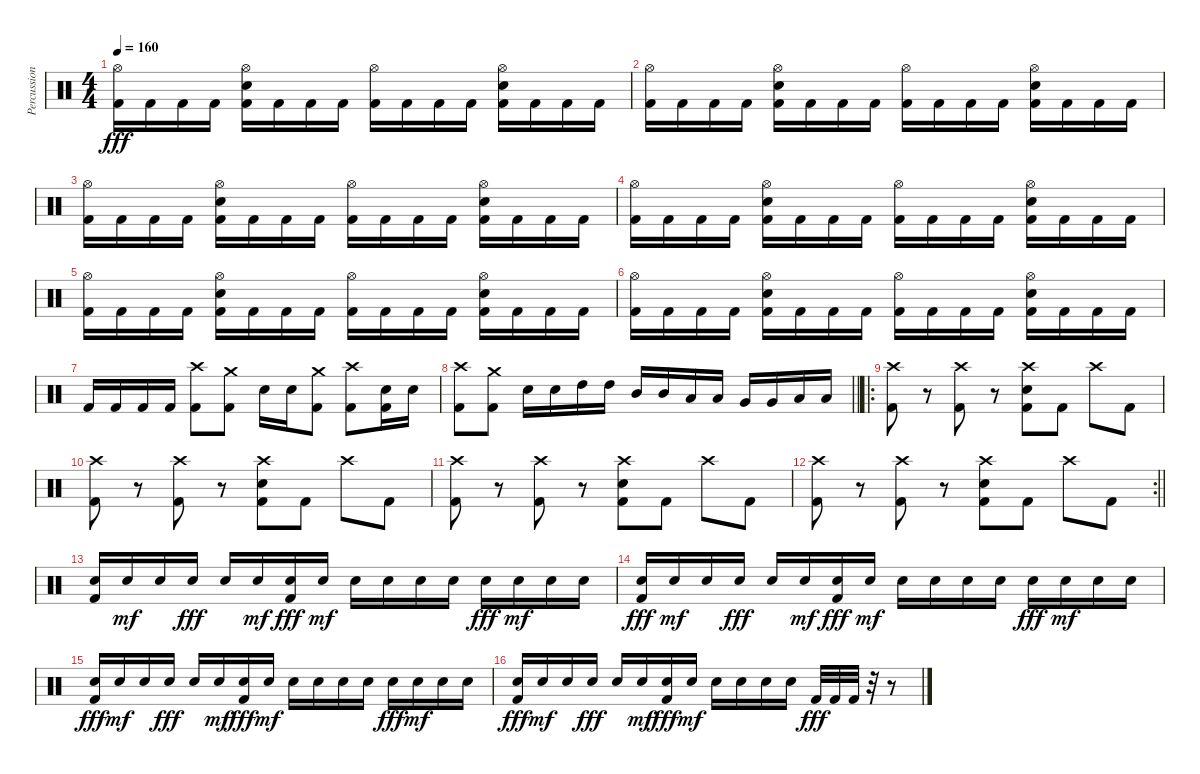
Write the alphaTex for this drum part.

\track ("Percussion" "Percussion") {instrument percussion}
\staff {score}
\articulation defaults
\ts (4 4)
\section ("" "")
\tempo 160
\clef neutral
\ks c
("Hi-Hat (open)" "Kick (hit) 2").16{dy fff} "Kick (hit) 2".16 "Kick (hit) 2".16 "Kick (hit) 2".16 ("Hi-Hat (open)" "Snare (hit) 2" "Kick (hit) 2").16 "Kick (hit) 2".16 "Kick (hit) 2".16 "Kick (hit) 2".16 ("Hi-Hat (open)" "Kick (hit) 2").16 "Kick (hit) 2".16 "Kick (hit) 2".16 "Kick (hit) 2".16 ("Hi-Hat (open)" "Snare (hit) 2" "Kick (hit) 2").16 "Kick (hit) 2".16 "Kick (hit) 2".16 "Kick (hit) 2".16 |
("Hi-Hat (open)" "Kick (hit) 2").16 "Kick (hit) 2".16 "Kick (hit) 2".16 "Kick (hit) 2".16 ("Hi-Hat (open)" "Snare (hit) 2" "Kick (hit) 2").16 "Kick (hit) 2".16 "Kick (hit) 2".16 "Kick (hit) 2".16 ("Hi-Hat (open)" "Kick (hit) 2").16 "Kick (hit) 2".16 "Kick (hit) 2".16 "Kick (hit) 2".16 ("Hi-Hat (open)" "Snare (hit) 2" "Kick (hit) 2").16 "Kick (hit) 2".16 "Kick (hit) 2".16 "Kick (hit) 2".16 |
("Hi-Hat (open)" "Kick (hit) 2").16 "Kick (hit) 2".16 "Kick (hit) 2".16 "Kick (hit) 2".16 ("Hi-Hat (open)" "Snare (hit) 2" "Kick (hit) 2").16 "Kick (hit) 2".16 "Kick (hit) 2".16 "Kick (hit) 2".16 ("Hi-Hat (open)" "Kick (hit) 2").16 "Kick (hit) 2".16 "Kick (hit) 2".16 "Kick (hit) 2".16 ("Hi-Hat (open)" "Snare (hit) 2" "Kick (hit) 2").16 "Kick (hit) 2".16 "Kick (hit) 2".16 "Kick (hit) 2".16 |
("Hi-Hat (open)" "Kick (hit) 2").16 "Kick (hit) 2".16 "Kick (hit) 2".16 "Kick (hit) 2".16 ("Hi-Hat (open)" "Snare (hit) 2" "Kick (hit) 2").16 "Kick (hit) 2".16 "Kick (hit) 2".16 "Kick (hit) 2".16 ("Hi-Hat (open)" "Kick (hit) 2").16 "Kick (hit) 2".16 "Kick (hit) 2".16 "Kick (hit) 2".16 ("Hi-Hat (open)" "Snare (hit) 2" "Kick (hit) 2").16 "Kick (hit) 2".16 "Kick (hit) 2".16 "Kick (hit) 2".16 |
("Hi-Hat (open)" "Kick (hit) 2").16 "Kick (hit) 2".16 "Kick (hit) 2".16 "Kick (hit) 2".16 ("Hi-Hat (open)" "Snare (hit) 2" "Kick (hit) 2").16 "Kick (hit) 2".16 "Kick (hit) 2".16 "Kick (hit) 2".16 ("Hi-Hat (open)" "Kick (hit) 2").16 "Kick (hit) 2".16 "Kick (hit) 2".16 "Kick (hit) 2".16 ("Hi-Hat (open)" "Snare (hit) 2" "Kick (hit) 2").16 "Kick (hit) 2".16 "Kick (hit) 2".16 "Kick (hit) 2".16 |
("Hi-Hat (open)" "Kick (hit) 2").16 "Kick (hit) 2".16 "Kick (hit) 2".16 "Kick (hit) 2".16 ("Hi-Hat (open)" "Snare (hit) 2" "Kick (hit) 2").16 "Kick (hit) 2".16 "Kick (hit) 2".16 "Kick (hit) 2".16 ("Hi-Hat (open)" "Kick (hit) 2").16 "Kick (hit) 2".16 "Kick (hit) 2".16 "Kick (hit) 2".16 ("Hi-Hat (open)" "Snare (hit) 2" "Kick (hit) 2").16 "Kick (hit) 2".16 "Kick (hit) 2".16 "Kick (hit) 2".16 |
"Kick (hit) 2".16 "Kick (hit) 2".16 "Kick (hit) 2".16 "Kick (hit) 2".16 ("Crash high (hit)" "Kick (hit) 2").8 ("Crash medium (hit)" "Kick (hit) 2").8 "Snare (hit) 2".16 "Snare (hit) 2".16 ("Crash medium (hit)" "Kick (hit) 2").8 ("Crash high (hit)" "Kick (hit) 2").8 ("Kick (hit) 2" "Snare (hit) 2").16 "Snare (hit) 2".16 |
\barLineRight lightlight
("Crash high (hit)" "Kick (hit) 2").8 ("Crash medium (hit)" "Kick (hit) 2").8 "Snare (hit) 2".16 "Snare (hit) 2".16 "High Tom (hit)".16 "High Tom (hit)".16 "Mid Tom (hit)".16 "Mid Tom (hit)".16 "Low Tom (hit)".16 "Low Tom (hit)".16 "Very Low Tom (hit)".16 "Very Low Tom (hit)".16 "Low Floor Tom (hit)".16 "Low Floor Tom (hit)".16 |
\ro
\section ("" "")
("Crash high (hit)" "Kick (hit) 2").8 r.8 ("Crash high (hit)" "Kick (hit) 2").8 r.8 ("Crash high (hit)" "Snare (hit) 2" "Kick (hit) 2").8 "Kick (hit) 2".8 "Crash high (hit)".8 "Kick (hit) 2".8 |
("Crash high (hit)" "Kick (hit) 2").8 r.8 ("Crash high (hit)" "Kick (hit) 2").8 r.8 ("Crash high (hit)" "Snare (hit) 2" "Kick (hit) 2").8 "Kick (hit) 2".8 "Crash high (hit)".8 "Kick (hit) 2".8 |
("Crash high (hit)" "Kick (hit) 2").8 r.8 ("Crash high (hit)" "Kick (hit) 2").8 r.8 ("Crash high (hit)" "Snare (hit) 2" "Kick (hit) 2").8 "Kick (hit) 2".8 "Crash high (hit)".8 "Kick (hit) 2".8 |
\rc 2
\barLineRight lightlight
("Crash high (hit)" "Kick (hit) 2").8 r.8 ("Crash high (hit)" "Kick (hit) 2").8 r.8 ("Crash high (hit)" "Snare (hit) 2" "Kick (hit) 2").8 "Kick (hit) 2".8 "Crash high (hit)".8 "Kick (hit) 2".8 |
\section ("" "")
("Snare (hit) 2" "Kick (hit) 2").16 "Snare (hit) 2".16{dy mf} "Snare (hit) 2".16 "Snare (hit) 2".16{dy fff} "Snare (hit) 2".16 "Snare (hit) 2".16{dy mf} ("Snare (hit) 2" "Kick (hit) 2").16{dy fff} "Snare (hit) 2".16{dy mf} "Snare (hit) 2".16 "Snare (hit) 2".16 "Snare (hit) 2".16 "Snare (hit) 2".16 "Snare (hit) 2".16{dy fff} "Snare (hit) 2".16{dy mf} "Snare (hit) 2".16 "Snare (hit) 2".16 |
("Snare (hit) 2" "Kick (hit) 2").16{dy fff} "Snare (hit) 2".16{dy mf} "Snare (hit) 2".16 "Snare (hit) 2".16{dy fff} "Snare (hit) 2".16 "Snare (hit) 2".16{dy mf} ("Snare (hit) 2" "Kick (hit) 2").16{dy fff} "Snare (hit) 2".16{dy mf} "Snare (hit) 2".16 "Snare (hit) 2".16 "Snare (hit) 2".16 "Snare (hit) 2".16 "Snare (hit) 2".16{dy fff} "Snare (hit) 2".16{dy mf} "Snare (hit) 2".16 "Snare (hit) 2".16 |
("Snare (hit) 2" "Kick (hit) 2").16{dy fff} "Snare (hit) 2".16{dy mf} "Snare (hit) 2".16 "Snare (hit) 2".16{dy fff} "Snare (hit) 2".16 "Snare (hit) 2".16{dy mf} ("Snare (hit) 2" "Kick (hit) 2").16{dy fff} "Snare (hit) 2".16{dy mf} "Snare (hit) 2".16 "Snare (hit) 2".16 "Snare (hit) 2".16 "Snare (hit) 2".16 "Snare (hit) 2".16{dy fff} "Snare (hit) 2".16{dy mf} "Snare (hit) 2".16 "Snare (hit) 2".16 |
("Snare (hit) 2" "Kick (hit) 2").16{dy fff} "Snare (hit) 2".16{dy mf} "Snare (hit) 2".16 "Snare (hit) 2".16{dy fff} "Snare (hit) 2".16 "Snare (hit) 2".16{dy mf} ("Snare (hit) 2" "Kick (hit) 2").16{dy fff} "Snare (hit) 2".16{dy mf} "Snare (hit) 2".16 "Snare (hit) 2".16 "Snare (hit) 2".16 "Snare (hit) 2".16 "Kick (hit) 2".32{dy fff} "Kick (hit) 2".32 "Kick (hit) 2".32 r.32 r.8
